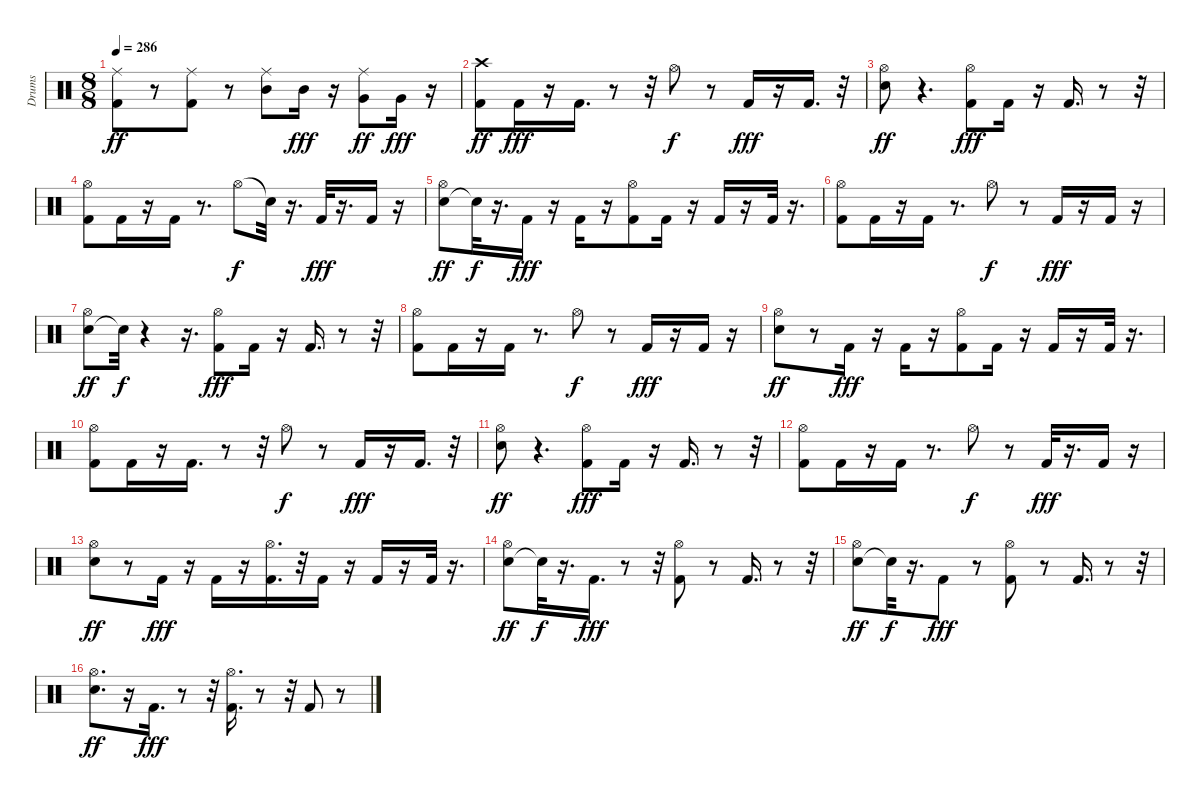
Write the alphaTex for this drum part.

\track ("Drums" "Drums") {instrument percussion}
\staff {score}
\articulation defaults
\ts (8 8)
\tempo 286
\clef neutral
\ks c
("Kick (hit) 2" "Ride (middle)").8{dy ff} r.8 ("Kick (hit) 2" "Ride (middle)").8 r.8 ("Mid Tom (hit)" "Ride (middle)").8 "Mid Tom (hit)".16{dy fff} r.16 ("Very Low Tom (hit)" "Ride (middle)").8{dy ff} "Very Low Tom (hit)".16{dy fff} r.16 |
("Kick (hit) 2" "Crash high (hit)").8{dy ff} "Kick (hit) 2".16{dy fff} r.16 "Kick (hit) 2".16{d} r.8 r.32 "Hi-Hat (open)".8{dy f} r.8 "Kick (hit) 2".16{dy fff} r.16 "Kick (hit) 2".16{d} r.32 |
("Snare (hit) 2" "Hi-Hat (open)").8{dy ff} r.4{d} ("Kick (hit) 2" "Hi-Hat (open)").8{dy fff} "Kick (hit) 2".16 r.16 "Kick (hit) 2".16{d} r.8 r.32 |
("Kick (hit) 2" "Hi-Hat (open)").8 "Kick (hit) 2".16 r.16 "Kick (hit) 2".16 r.8{d} "Hi-Hat (open)".8{dy f} "Snare (hit)"{t}.32 r.16{d} "Kick (hit) 2".32{dy fff} r.16{d} "Kick (hit) 2".16 r.16 |
("Snare (hit) 2" "Hi-Hat (open)").8{dy ff} "Snare (hit)"{t}.32{dy f} r.16{d} "Kick (hit) 2".16{dy fff} r.16 "Kick (hit) 2".16 r.16 ("Kick (hit) 2" "Hi-Hat (open)").8 "Kick (hit) 2".16 r.16 "Kick (hit) 2".16 r.16 "Kick (hit) 2".32 r.16{d} |
("Kick (hit) 2" "Hi-Hat (open)").8 "Kick (hit) 2".16 r.16 "Kick (hit) 2".16 r.8{d} "Hi-Hat (open)".8{dy f} r.8 "Kick (hit) 2".16{dy fff} r.16 "Kick (hit) 2".16 r.16 |
("Snare (hit) 2" "Hi-Hat (open)").8{dy ff} "Snare (hit)"{t}.32{dy f} r.4 r.16{d} ("Kick (hit) 2" "Hi-Hat (open)").8{dy fff} "Kick (hit) 2".16 r.16 "Kick (hit) 2".16{d} r.8 r.32 |
("Kick (hit) 2" "Hi-Hat (open)").8 "Kick (hit) 2".16 r.16 "Kick (hit) 2".16 r.8{d} "Hi-Hat (open)".8{dy f} r.8 "Kick (hit) 2".16{dy fff} r.16 "Kick (hit) 2".16 r.16 |
("Snare (hit) 2" "Hi-Hat (open)").8{dy ff} r.8 "Kick (hit) 2".16{dy fff} r.16 "Kick (hit) 2".16 r.16 ("Kick (hit) 2" "Hi-Hat (open)").8 "Kick (hit) 2".16 r.16 "Kick (hit) 2".16 r.16 "Kick (hit) 2".32 r.16{d} |
("Kick (hit) 2" "Hi-Hat (open)").8 "Kick (hit) 2".16 r.16 "Kick (hit) 2".16{d} r.8 r.32 "Hi-Hat (open)".8{dy f} r.8 "Kick (hit) 2".16{dy fff} r.16 "Kick (hit) 2".16{d} r.32 |
("Snare (hit) 2" "Hi-Hat (open)").8{dy ff} r.4{d} ("Kick (hit) 2" "Hi-Hat (open)").8{dy fff} "Kick (hit) 2".16 r.16 "Kick (hit) 2".16{d} r.8 r.32 |
("Kick (hit) 2" "Hi-Hat (open)").8 "Kick (hit) 2".16 r.16 "Kick (hit) 2".16 r.8{d} "Hi-Hat (open)".8{dy f} r.8 "Kick (hit) 2".32{dy fff} r.16{d} "Kick (hit) 2".16 r.16 |
("Snare (hit) 2" "Hi-Hat (open)").8{dy ff} r.8 "Kick (hit) 2".16{dy fff} r.16 "Kick (hit) 2".16 r.16 ("Kick (hit) 2" "Hi-Hat (open)").16{d} r.32 "Kick (hit) 2".16 r.16 "Kick (hit) 2".16 r.16 "Kick (hit) 2".32 r.16{d} |
("Snare (hit) 2" "Hi-Hat (open)").8{dy ff} "Snare (hit)"{t}.32{dy f} r.16{d} "Kick (hit) 2".16{d dy fff} r.8 r.32 ("Kick (hit) 2" "Hi-Hat (open)").8 r.8 "Kick (hit) 2".16{d} r.8 r.32 |
("Snare (hit) 2" "Hi-Hat (open)").8{dy ff} "Snare (hit)"{t}.32{dy f} r.16{d} "Kick (hit) 2".8{dy fff} r.8 ("Kick (hit) 2" "Hi-Hat (open)").8 r.8 "Kick (hit) 2".16{d} r.8 r.32 |
("Snare (hit) 2" "Hi-Hat (open)").8{d dy ff} r.16 "Kick (hit) 2".16{d dy fff} r.8 r.32 ("Kick (hit) 2" "Hi-Hat (open)").16{d} r.8 r.32 "Kick (hit) 2".8 r.8
